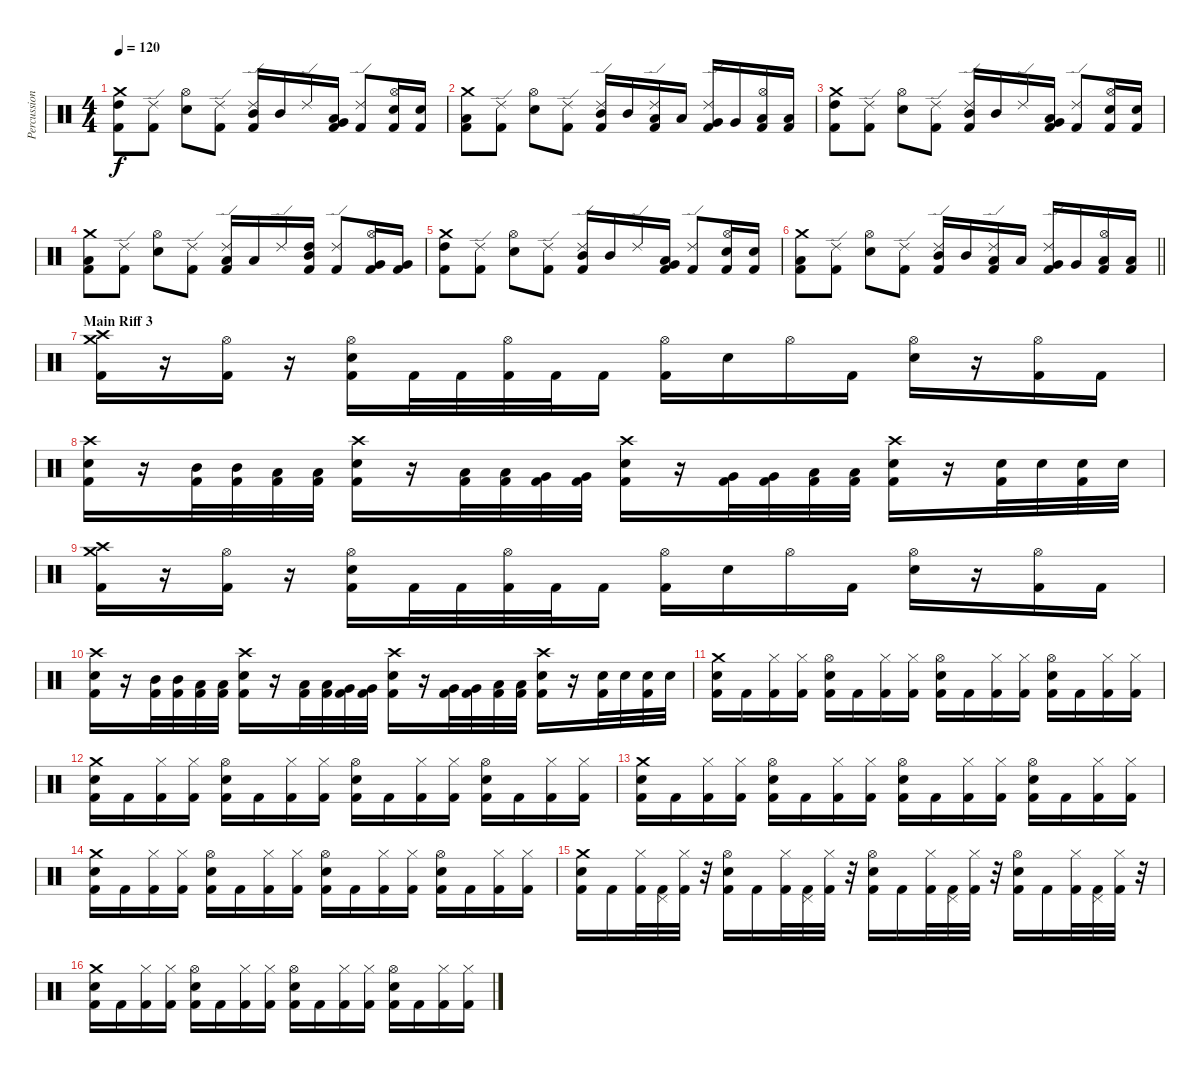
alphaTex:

\track ("Percussion" "Percussion") {instrument percussion}
\staff {score}
\articulation defaults
\ts (4 4)
\tempo 120
\clef neutral
\ks c
("Crash medium (hit)" "High Tom (hit)" "Kick (hit) 2").8{dy f} ("Ride (edge) 2" "Kick (hit) 2").8 ("Hi-Hat (open)" "Electric Snare (hit)").8 ("Ride (edge) 2" "Kick (hit) 2").8 ("Ride (edge) 2" "Mid Tom (hit)" "Kick (hit) 2").16 "Mid Tom (hit)".16 "Ride (edge) 2".16 ("Very Low Tom (hit)" "Low Floor Tom (hit)" "Kick (hit) 2").16 ("Ride (edge) 2" "Kick (hit) 2").8 ("Hi-Hat (open)" "Electric Snare (hit)" "Kick (hit) 2").16 ("Electric Snare (hit)" "Kick (hit) 2").16 |
("Crash medium (hit)" "Low Floor Tom (hit)" "Kick (hit) 2").8 ("Ride (edge) 2" "Kick (hit) 2").8 ("Hi-Hat (open)" "Electric Snare (hit)").8 ("Ride (edge) 2" "Kick (hit) 2").8 ("Ride (edge) 2" "Mid Tom (hit)" "Kick (hit) 2").16 "Mid Tom (hit)".16 ("Ride (edge) 2" "Low Tom (hit)" "Kick (hit) 2").16 "Low Tom (hit)".16 ("Ride (edge) 2" "Very Low Tom (hit)" "Kick (hit) 2").16 "Very Low Tom (hit)".16 ("Hi-Hat (open)" "Low Floor Tom (hit)" "Kick (hit) 2").16 ("Low Floor Tom (hit)" "Kick (hit) 2").16 |
("Crash medium (hit)" "High Tom (hit)" "Kick (hit) 2").8 ("Ride (edge) 2" "Kick (hit) 2").8 ("Hi-Hat (open)" "Electric Snare (hit)").8 ("Ride (edge) 2" "Kick (hit) 2").8 ("Ride (edge) 2" "Mid Tom (hit)" "Kick (hit) 2").16 "Mid Tom (hit)".16 "Ride (edge) 2".16 ("Very Low Tom (hit)" "Low Floor Tom (hit)" "Kick (hit) 2").16 ("Ride (edge) 2" "Kick (hit) 2").8 ("Hi-Hat (open)" "Electric Snare (hit)" "Kick (hit) 2").16 ("Electric Snare (hit)" "Kick (hit) 2").16 |
("Crash medium (hit)" "Low Floor Tom (hit)" "Kick (hit) 2").8 ("Ride (edge) 2" "Kick (hit) 2").8 ("Hi-Hat (open)" "Electric Snare (hit)").8 ("Ride (edge) 2" "Kick (hit) 2").8 ("Ride (edge) 2" "Low Tom (hit)" "Kick (hit) 2").16 "Low Tom (hit)".16 "Ride (edge) 2".16 ("High Tom (hit)" "Mid Tom (hit)" "Kick (hit) 2").16 ("Ride (edge) 2" "Kick (hit) 2").8 ("Hi-Hat (open)" "Very Low Tom (hit)" "Kick (hit) 2").16 ("Very Low Tom (hit)" "Kick (hit) 2").16 |
("Crash medium (hit)" "High Tom (hit)" "Kick (hit) 2").8 ("Ride (edge) 2" "Kick (hit) 2").8 ("Hi-Hat (open)" "Electric Snare (hit)").8 ("Ride (edge) 2" "Kick (hit) 2").8 ("Ride (edge) 2" "Mid Tom (hit)" "Kick (hit) 2").16 "Mid Tom (hit)".16 "Ride (edge) 2".16 ("Very Low Tom (hit)" "Low Floor Tom (hit)" "Kick (hit) 2").16 ("Ride (edge) 2" "Kick (hit) 2").8 ("Hi-Hat (open)" "Electric Snare (hit)" "Kick (hit) 2").16 ("Electric Snare (hit)" "Kick (hit) 2").16 |
\barLineRight lightlight
("Crash medium (hit)" "Low Floor Tom (hit)" "Kick (hit) 2").8 ("Ride (edge) 2" "Kick (hit) 2").8 ("Hi-Hat (open)" "Electric Snare (hit)").8 ("Ride (edge) 2" "Kick (hit) 2").8 ("Ride (edge) 2" "Mid Tom (hit)" "Kick (hit) 2").16 "Mid Tom (hit)".16 ("Ride (edge) 2" "Low Tom (hit)" "Kick (hit) 2").16 "Low Tom (hit)".16 ("Ride (edge) 2" "Very Low Tom (hit)" "Kick (hit) 2").16 "Very Low Tom (hit)".16 ("Hi-Hat (open)" "Low Floor Tom (hit)" "Kick (hit) 2").16 ("Low Floor Tom (hit)" "Kick (hit) 2").16 |
\section ("" "Main Riff 3")
("Crash medium (hit)" "Crash high (hit)" "Kick (hit) 2").16 r.16 ("Hi-Hat (open)" "Kick (hit) 2").16 r.16 ("Hi-Hat (open)" "Electric Snare (hit)" "Kick (hit) 2").16 "Kick (hit) 2".32 "Kick (hit) 2".32 ("Hi-Hat (open)" "Kick (hit) 2").32 "Kick (hit) 2".32 "Kick (hit) 2".16 ("Hi-Hat (open)" "Kick (hit) 2").16 "Electric Snare (hit)".16 "Hi-Hat (open)".16 "Kick (hit) 2".16 ("Hi-Hat (open)" "Electric Snare (hit)").16 r.16 ("Hi-Hat (open)" "Kick (hit) 2").16 "Kick (hit) 2".16 |
("Crash high (hit)" "Electric Snare (hit)" "Kick (hit) 2").16 r.16 ("Mid Tom (hit)" "Kick (hit) 2").32 ("Mid Tom (hit)" "Kick (hit) 2").32 ("Low Tom (hit)" "Kick (hit) 2").32 ("Low Tom (hit)" "Kick (hit) 2").32 ("Crash high (hit)" "Electric Snare (hit)" "Kick (hit) 2").16 r.16 ("Low Tom (hit)" "Kick (hit) 2").32 ("Low Tom (hit)" "Kick (hit) 2").32 ("Very Low Tom (hit)" "Kick (hit) 2").32 ("Very Low Tom (hit)" "Kick (hit) 2").32 ("Crash high (hit)" "Electric Snare (hit)" "Kick (hit) 2").16 r.16 ("Very Low Tom (hit)" "Kick (hit) 2").32 ("Very Low Tom (hit)" "Kick (hit) 2").32 ("Low Floor Tom (hit)" "Kick (hit) 2").32 ("Low Floor Tom (hit)" "Kick (hit) 2").32 ("Crash high (hit)" "Electric Snare (hit)" "Kick (hit) 2").16 r.16 ("Electric Snare (hit)" "Kick (hit) 2").32 "Electric Snare (hit)".32 ("Electric Snare (hit)" "Kick (hit) 2").32 "Electric Snare (hit)".32 |
("Crash medium (hit)" "Crash high (hit)" "Kick (hit) 2").16 r.16 ("Hi-Hat (open)" "Kick (hit) 2").16 r.16 ("Hi-Hat (open)" "Electric Snare (hit)" "Kick (hit) 2").16 "Kick (hit) 2".32 "Kick (hit) 2".32 ("Hi-Hat (open)" "Kick (hit) 2").32 "Kick (hit) 2".32 "Kick (hit) 2".16 ("Hi-Hat (open)" "Kick (hit) 2").16 "Electric Snare (hit)".16 "Hi-Hat (open)".16 "Kick (hit) 2".16 ("Hi-Hat (open)" "Electric Snare (hit)").16 r.16 ("Hi-Hat (open)" "Kick (hit) 2").16 "Kick (hit) 2".16 |
("Crash high (hit)" "Electric Snare (hit)" "Kick (hit) 2").16 r.16 ("Mid Tom (hit)" "Kick (hit) 2").32 ("Mid Tom (hit)" "Kick (hit) 2").32 ("Low Tom (hit)" "Kick (hit) 2").32 ("Low Tom (hit)" "Kick (hit) 2").32 ("Crash high (hit)" "Electric Snare (hit)" "Kick (hit) 2").16 r.16 ("Low Tom (hit)" "Kick (hit) 2").32 ("Low Tom (hit)" "Kick (hit) 2").32 ("Very Low Tom (hit)" "Kick (hit) 2").32 ("Very Low Tom (hit)" "Kick (hit) 2").32 ("Crash high (hit)" "Electric Snare (hit)" "Kick (hit) 2").16 r.16 ("Very Low Tom (hit)" "Kick (hit) 2").32 ("Very Low Tom (hit)" "Kick (hit) 2").32 ("Low Floor Tom (hit)" "Kick (hit) 2").32 ("Low Floor Tom (hit)" "Kick (hit) 2").32 ("Crash high (hit)" "Electric Snare (hit)" "Kick (hit) 2").16 r.16 ("Electric Snare (hit)" "Kick (hit) 2").32 "Electric Snare (hit)".32 ("Electric Snare (hit)" "Kick (hit) 2").32 "Electric Snare (hit)".32 |
("Crash medium (hit)" "Electric Snare (hit)" "Kick (hit) 2").16 "Kick (hit) 2".16 ("Hi-Hat (closed)" "Kick (hit) 2").16 ("Hi-Hat (closed)" "Kick (hit) 2").16 ("Hi-Hat (open)" "Electric Snare (hit)" "Kick (hit) 2").16 "Kick (hit) 2".16 ("Hi-Hat (closed)" "Kick (hit) 2").16 ("Hi-Hat (closed)" "Kick (hit) 2").16 ("Hi-Hat (open)" "Electric Snare (hit)" "Kick (hit) 2").16 "Kick (hit) 2".16 ("Hi-Hat (closed)" "Kick (hit) 2").16 ("Hi-Hat (closed)" "Kick (hit) 2").16 ("Hi-Hat (open)" "Electric Snare (hit)" "Kick (hit) 2").16 "Kick (hit) 2".16 ("Hi-Hat (closed)" "Kick (hit) 2").16 ("Hi-Hat (closed)" "Kick (hit) 2").16 |
("Crash medium (hit)" "Electric Snare (hit)" "Kick (hit) 2").16 "Kick (hit) 2".16 ("Hi-Hat (closed)" "Kick (hit) 2").16 ("Hi-Hat (closed)" "Kick (hit) 2").16 ("Hi-Hat (open)" "Electric Snare (hit)" "Kick (hit) 2").16 "Kick (hit) 2".16 ("Hi-Hat (closed)" "Kick (hit) 2").16 ("Hi-Hat (closed)" "Kick (hit) 2").16 ("Hi-Hat (open)" "Electric Snare (hit)" "Kick (hit) 2").16 "Kick (hit) 2".16 ("Hi-Hat (closed)" "Kick (hit) 2").16 ("Hi-Hat (closed)" "Kick (hit) 2").16 ("Hi-Hat (open)" "Electric Snare (hit)" "Kick (hit) 2").16 "Kick (hit) 2".16 ("Hi-Hat (closed)" "Kick (hit) 2").16 ("Hi-Hat (closed)" "Kick (hit) 2").16 |
("Crash medium (hit)" "Electric Snare (hit)" "Kick (hit) 2").16 "Kick (hit) 2".16 ("Hi-Hat (closed)" "Kick (hit) 2").16 ("Hi-Hat (closed)" "Kick (hit) 2").16 ("Hi-Hat (open)" "Electric Snare (hit)" "Kick (hit) 2").16 "Kick (hit) 2".16 ("Hi-Hat (closed)" "Kick (hit) 2").16 ("Hi-Hat (closed)" "Kick (hit) 2").16 ("Hi-Hat (open)" "Electric Snare (hit)" "Kick (hit) 2").16 "Kick (hit) 2".16 ("Hi-Hat (closed)" "Kick (hit) 2").16 ("Hi-Hat (closed)" "Kick (hit) 2").16 ("Hi-Hat (open)" "Electric Snare (hit)" "Kick (hit) 2").16 "Kick (hit) 2".16 ("Hi-Hat (closed)" "Kick (hit) 2").16 ("Hi-Hat (closed)" "Kick (hit) 2").16 |
("Crash medium (hit)" "Electric Snare (hit)" "Kick (hit) 2").16 "Kick (hit) 2".16 ("Hi-Hat (closed)" "Kick (hit) 2").16 ("Hi-Hat (closed)" "Kick (hit) 2").16 ("Hi-Hat (open)" "Electric Snare (hit)" "Kick (hit) 2").16 "Kick (hit) 2".16 ("Hi-Hat (closed)" "Kick (hit) 2").16 ("Hi-Hat (closed)" "Kick (hit) 2").16 ("Hi-Hat (open)" "Electric Snare (hit)" "Kick (hit) 2").16 "Kick (hit) 2".16 ("Hi-Hat (closed)" "Kick (hit) 2").16 ("Hi-Hat (closed)" "Kick (hit) 2").16 ("Hi-Hat (open)" "Electric Snare (hit)" "Kick (hit) 2").16 "Kick (hit) 2".16 ("Hi-Hat (closed)" "Kick (hit) 2").16 ("Hi-Hat (closed)" "Kick (hit) 2").16 |
("Crash medium (hit)" "Electric Snare (hit)" "Kick (hit) 2").16 "Kick (hit) 2".16 ("Hi-Hat (closed)" "Kick (hit) 2").32 ("Pedal Hi-Hat (hit)" "Kick (hit) 2").32 ("Hi-Hat (closed)" "Kick (hit) 2").32 r.32 ("Hi-Hat (open)" "Electric Snare (hit)" "Kick (hit) 2").16 "Kick (hit) 2".16 ("Hi-Hat (closed)" "Kick (hit) 2").32 ("Pedal Hi-Hat (hit)" "Kick (hit) 2").32 ("Hi-Hat (closed)" "Kick (hit) 2").32 r.32 ("Hi-Hat (open)" "Electric Snare (hit)" "Kick (hit) 2").16 "Kick (hit) 2".16 ("Hi-Hat (closed)" "Kick (hit) 2").32 ("Pedal Hi-Hat (hit)" "Kick (hit) 2").32 ("Hi-Hat (closed)" "Kick (hit) 2").32 r.32 ("Hi-Hat (open)" "Electric Snare (hit)" "Kick (hit) 2").16 "Kick (hit) 2".16 ("Hi-Hat (closed)" "Kick (hit) 2").32 ("Pedal Hi-Hat (hit)" "Kick (hit) 2").32 ("Hi-Hat (closed)" "Kick (hit) 2").32 r.32 |
("Crash medium (hit)" "Electric Snare (hit)" "Kick (hit) 2").16 "Kick (hit) 2".16 ("Hi-Hat (closed)" "Kick (hit) 2").16 ("Hi-Hat (closed)" "Kick (hit) 2").16 ("Hi-Hat (open)" "Electric Snare (hit)" "Kick (hit) 2").16 "Kick (hit) 2".16 ("Hi-Hat (closed)" "Kick (hit) 2").16 ("Hi-Hat (closed)" "Kick (hit) 2").16 ("Hi-Hat (open)" "Electric Snare (hit)" "Kick (hit) 2").16 "Kick (hit) 2".16 ("Hi-Hat (closed)" "Kick (hit) 2").16 ("Hi-Hat (closed)" "Kick (hit) 2").16 ("Hi-Hat (open)" "Electric Snare (hit)" "Kick (hit) 2").16 "Kick (hit) 2".16 ("Hi-Hat (closed)" "Kick (hit) 2").16 ("Hi-Hat (closed)" "Kick (hit) 2").16
